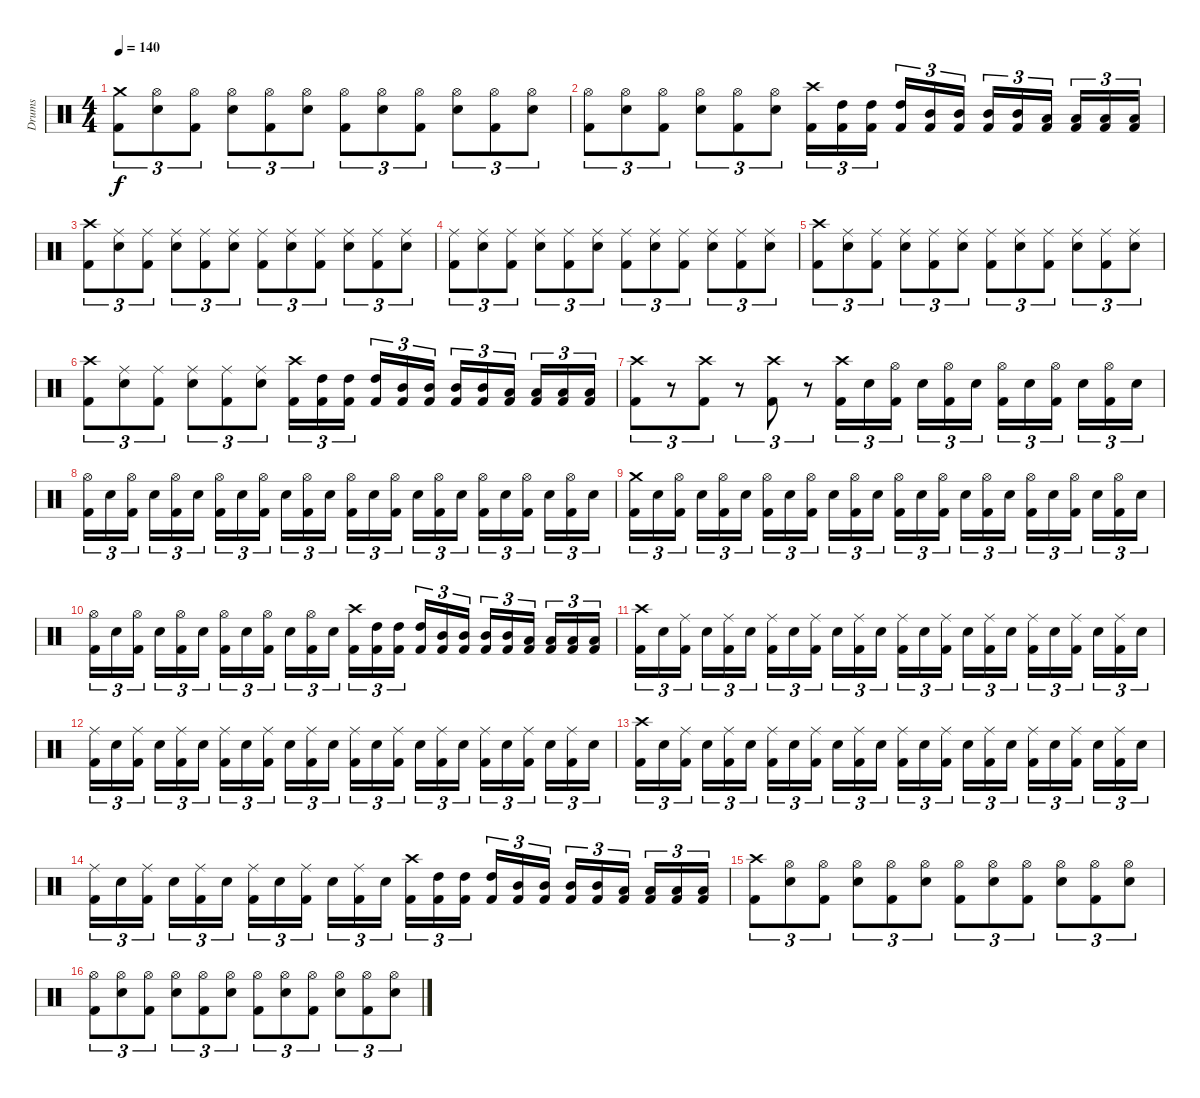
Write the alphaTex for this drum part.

\track ("Drums" "Drums") {instrument percussion}
\staff {score}
\articulation defaults
\ts (4 4)
\tempo 140
\clef neutral
\ks c
("Kick (hit) 2" "Crash medium (hit)").8{tu (3 2) dy f} ("Snare (hit) 2" "Hi-Hat (open)").8{tu (3 2)} ("Kick (hit) 2" "Hi-Hat (open)").8{tu (3 2)} ("Snare (hit) 2" "Hi-Hat (open)").8{tu (3 2)} ("Kick (hit) 2" "Hi-Hat (open)").8{tu (3 2)} ("Snare (hit) 2" "Hi-Hat (open)").8{tu (3 2)} ("Kick (hit) 2" "Hi-Hat (open)").8{tu (3 2)} ("Snare (hit) 2" "Hi-Hat (open)").8{tu (3 2)} ("Kick (hit) 2" "Hi-Hat (open)").8{tu (3 2)} ("Snare (hit) 2" "Hi-Hat (open)").8{tu (3 2)} ("Kick (hit) 2" "Hi-Hat (open)").8{tu (3 2)} ("Snare (hit) 2" "Hi-Hat (open)").8{tu (3 2)} |
("Kick (hit) 2" "Hi-Hat (open)").8{tu (3 2)} ("Snare (hit) 2" "Hi-Hat (open)").8{tu (3 2)} ("Kick (hit) 2" "Hi-Hat (open)").8{tu (3 2)} ("Snare (hit) 2" "Hi-Hat (open)").8{tu (3 2)} ("Kick (hit) 2" "Hi-Hat (open)").8{tu (3 2)} ("Snare (hit) 2" "Hi-Hat (open)").8{tu (3 2)} ("Kick (hit) 2" "Crash high (hit)").16{tu (3 2)} ("Kick (hit) 2" "High Tom (hit)").16{tu (3 2)} ("Kick (hit) 2" "High Tom (hit)").16{tu (3 2)} ("Kick (hit) 2" "High Tom (hit)").16{tu (3 2)} ("Kick (hit) 2" "Mid Tom (hit)").16{tu (3 2)} ("Kick (hit) 2" "Mid Tom (hit)").16{tu (3 2)} ("Kick (hit) 2" "Mid Tom (hit)").16{tu (3 2)} ("Kick (hit) 2" "Mid Tom (hit)").16{tu (3 2)} ("Kick (hit) 2" "Low Tom (hit)").16{tu (3 2)} ("Kick (hit) 2" "Low Tom (hit)").16{tu (3 2)} ("Kick (hit) 2" "Low Tom (hit)").16{tu (3 2)} ("Kick (hit) 2" "Low Tom (hit)").16{tu (3 2)} |
("Kick (hit) 2" "Crash high (hit)").8{tu (3 2)} ("Snare (hit) 2" "Ride (middle)").8{tu (3 2)} ("Kick (hit) 2" "Ride (middle)").8{tu (3 2)} ("Snare (hit) 2" "Ride (middle)").8{tu (3 2)} ("Kick (hit) 2" "Ride (middle)").8{tu (3 2)} ("Snare (hit) 2" "Ride (middle)").8{tu (3 2)} ("Kick (hit) 2" "Ride (middle)").8{tu (3 2)} ("Snare (hit) 2" "Ride (middle)").8{tu (3 2)} ("Kick (hit) 2" "Ride (middle)").8{tu (3 2)} ("Snare (hit) 2" "Ride (middle)").8{tu (3 2)} ("Kick (hit) 2" "Ride (middle)").8{tu (3 2)} ("Snare (hit) 2" "Ride (middle)").8{tu (3 2)} |
("Kick (hit) 2" "Ride (middle)").8{tu (3 2)} ("Snare (hit) 2" "Ride (middle)").8{tu (3 2)} ("Kick (hit) 2" "Ride (middle)").8{tu (3 2)} ("Snare (hit) 2" "Ride (middle)").8{tu (3 2)} ("Kick (hit) 2" "Ride (middle)").8{tu (3 2)} ("Snare (hit) 2" "Ride (middle)").8{tu (3 2)} ("Kick (hit) 2" "Ride (middle)").8{tu (3 2)} ("Snare (hit) 2" "Ride (middle)").8{tu (3 2)} ("Kick (hit) 2" "Ride (middle)").8{tu (3 2)} ("Snare (hit) 2" "Ride (middle)").8{tu (3 2)} ("Kick (hit) 2" "Ride (middle)").8{tu (3 2)} ("Snare (hit) 2" "Ride (middle)").8{tu (3 2)} |
("Kick (hit) 2" "Crash high (hit)").8{tu (3 2)} ("Snare (hit) 2" "Ride (middle)").8{tu (3 2)} ("Kick (hit) 2" "Ride (middle)").8{tu (3 2)} ("Snare (hit) 2" "Ride (middle)").8{tu (3 2)} ("Kick (hit) 2" "Ride (middle)").8{tu (3 2)} ("Snare (hit) 2" "Ride (middle)").8{tu (3 2)} ("Kick (hit) 2" "Ride (middle)").8{tu (3 2)} ("Snare (hit) 2" "Ride (middle)").8{tu (3 2)} ("Kick (hit) 2" "Ride (middle)").8{tu (3 2)} ("Snare (hit) 2" "Ride (middle)").8{tu (3 2)} ("Kick (hit) 2" "Ride (middle)").8{tu (3 2)} ("Snare (hit) 2" "Ride (middle)").8{tu (3 2)} |
("Kick (hit) 2" "Crash high (hit)").8{tu (3 2)} ("Snare (hit) 2" "Ride (middle)").8{tu (3 2)} ("Kick (hit) 2" "Ride (middle)").8{tu (3 2)} ("Snare (hit) 2" "Ride (middle)").8{tu (3 2)} ("Kick (hit) 2" "Ride (middle)").8{tu (3 2)} ("Snare (hit) 2" "Ride (middle)").8{tu (3 2)} ("Kick (hit) 2" "Crash high (hit)").16{tu (3 2)} ("Kick (hit) 2" "High Tom (hit)").16{tu (3 2)} ("Kick (hit) 2" "High Tom (hit)").16{tu (3 2)} ("Kick (hit) 2" "High Tom (hit)").16{tu (3 2)} ("Kick (hit) 2" "Mid Tom (hit)").16{tu (3 2)} ("Kick (hit) 2" "Mid Tom (hit)").16{tu (3 2)} ("Kick (hit) 2" "Mid Tom (hit)").16{tu (3 2)} ("Kick (hit) 2" "Mid Tom (hit)").16{tu (3 2)} ("Kick (hit) 2" "Low Tom (hit)").16{tu (3 2)} ("Kick (hit) 2" "Low Tom (hit)").16{tu (3 2)} ("Kick (hit) 2" "Low Tom (hit)").16{tu (3 2)} ("Kick (hit) 2" "Low Tom (hit)").16{tu (3 2)} |
("Kick (hit) 2" "Crash high (hit)").8{tu (3 2)} r.8{tu (3 2)} ("Kick (hit) 2" "Crash high (hit)").8{tu (3 2)} r.8{tu (3 2)} ("Kick (hit) 2" "Crash high (hit)").8{tu (3 2)} r.8{tu (3 2)} ("Kick (hit) 2" "Crash high (hit)").16{tu (3 2)} "Snare (hit) 2".16{tu (3 2)} ("Kick (hit) 2" "Hi-Hat (open)").16{tu (3 2)} "Snare (hit) 2".16{tu (3 2)} ("Kick (hit) 2" "Hi-Hat (open)").16{tu (3 2)} "Snare (hit) 2".16{tu (3 2)} ("Kick (hit) 2" "Hi-Hat (open)").16{tu (3 2)} "Snare (hit) 2".16{tu (3 2)} ("Kick (hit) 2" "Hi-Hat (open)").16{tu (3 2)} "Snare (hit) 2".16{tu (3 2)} ("Kick (hit) 2" "Hi-Hat (open)").16{tu (3 2)} "Snare (hit) 2".16{tu (3 2)} |
("Kick (hit) 2" "Hi-Hat (open)").16{tu (3 2)} "Snare (hit) 2".16{tu (3 2)} ("Kick (hit) 2" "Hi-Hat (open)").16{tu (3 2)} "Snare (hit) 2".16{tu (3 2)} ("Kick (hit) 2" "Hi-Hat (open)").16{tu (3 2)} "Snare (hit) 2".16{tu (3 2)} ("Kick (hit) 2" "Hi-Hat (open)").16{tu (3 2)} "Snare (hit) 2".16{tu (3 2)} ("Kick (hit) 2" "Hi-Hat (open)").16{tu (3 2)} "Snare (hit) 2".16{tu (3 2)} ("Kick (hit) 2" "Hi-Hat (open)").16{tu (3 2)} "Snare (hit) 2".16{tu (3 2)} ("Kick (hit) 2" "Hi-Hat (open)").16{tu (3 2)} "Snare (hit) 2".16{tu (3 2)} ("Kick (hit) 2" "Hi-Hat (open)").16{tu (3 2)} "Snare (hit) 2".16{tu (3 2)} ("Kick (hit) 2" "Hi-Hat (open)").16{tu (3 2)} "Snare (hit) 2".16{tu (3 2)} ("Kick (hit) 2" "Hi-Hat (open)").16{tu (3 2)} "Snare (hit) 2".16{tu (3 2)} ("Kick (hit) 2" "Hi-Hat (open)").16{tu (3 2)} "Snare (hit) 2".16{tu (3 2)} ("Kick (hit) 2" "Hi-Hat (open)").16{tu (3 2)} "Snare (hit) 2".16{tu (3 2)} |
("Kick (hit) 2" "Crash medium (hit)").16{tu (3 2)} "Snare (hit) 2".16{tu (3 2)} ("Kick (hit) 2" "Hi-Hat (open)").16{tu (3 2)} "Snare (hit) 2".16{tu (3 2)} ("Kick (hit) 2" "Hi-Hat (open)").16{tu (3 2)} "Snare (hit) 2".16{tu (3 2)} ("Kick (hit) 2" "Hi-Hat (open)").16{tu (3 2)} "Snare (hit) 2".16{tu (3 2)} ("Kick (hit) 2" "Hi-Hat (open)").16{tu (3 2)} "Snare (hit) 2".16{tu (3 2)} ("Kick (hit) 2" "Hi-Hat (open)").16{tu (3 2)} "Snare (hit) 2".16{tu (3 2)} ("Kick (hit) 2" "Hi-Hat (open)").16{tu (3 2)} "Snare (hit) 2".16{tu (3 2)} ("Kick (hit) 2" "Hi-Hat (open)").16{tu (3 2)} "Snare (hit) 2".16{tu (3 2)} ("Kick (hit) 2" "Hi-Hat (open)").16{tu (3 2)} "Snare (hit) 2".16{tu (3 2)} ("Kick (hit) 2" "Hi-Hat (open)").16{tu (3 2)} "Snare (hit) 2".16{tu (3 2)} ("Kick (hit) 2" "Hi-Hat (open)").16{tu (3 2)} "Snare (hit) 2".16{tu (3 2)} ("Kick (hit) 2" "Hi-Hat (open)").16{tu (3 2)} "Snare (hit) 2".16{tu (3 2)} |
("Kick (hit) 2" "Hi-Hat (open)").16{tu (3 2)} "Snare (hit) 2".16{tu (3 2)} ("Kick (hit) 2" "Hi-Hat (open)").16{tu (3 2)} "Snare (hit) 2".16{tu (3 2)} ("Kick (hit) 2" "Hi-Hat (open)").16{tu (3 2)} "Snare (hit) 2".16{tu (3 2)} ("Kick (hit) 2" "Hi-Hat (open)").16{tu (3 2)} "Snare (hit) 2".16{tu (3 2)} ("Kick (hit) 2" "Hi-Hat (open)").16{tu (3 2)} "Snare (hit) 2".16{tu (3 2)} ("Kick (hit) 2" "Hi-Hat (open)").16{tu (3 2)} "Snare (hit) 2".16{tu (3 2)} ("Kick (hit) 2" "Crash high (hit)").16{tu (3 2)} ("Kick (hit) 2" "High Tom (hit)").16{tu (3 2)} ("Kick (hit) 2" "High Tom (hit)").16{tu (3 2)} ("Kick (hit) 2" "High Tom (hit)").16{tu (3 2)} ("Kick (hit) 2" "Mid Tom (hit)").16{tu (3 2)} ("Kick (hit) 2" "Mid Tom (hit)").16{tu (3 2)} ("Kick (hit) 2" "Mid Tom (hit)").16{tu (3 2)} ("Kick (hit) 2" "Mid Tom (hit)").16{tu (3 2)} ("Kick (hit) 2" "Low Tom (hit)").16{tu (3 2)} ("Kick (hit) 2" "Low Tom (hit)").16{tu (3 2)} ("Kick (hit) 2" "Low Tom (hit)").16{tu (3 2)} ("Kick (hit) 2" "Low Tom (hit)").16{tu (3 2)} |
("Kick (hit) 2" "Crash high (hit)").16{tu (3 2)} "Snare (hit) 2".16{tu (3 2)} ("Kick (hit) 2" "Ride (middle)").16{tu (3 2)} "Snare (hit) 2".16{tu (3 2)} ("Kick (hit) 2" "Ride (middle)").16{tu (3 2)} "Snare (hit) 2".16{tu (3 2)} ("Kick (hit) 2" "Ride (middle)").16{tu (3 2)} "Snare (hit) 2".16{tu (3 2)} ("Kick (hit) 2" "Ride (middle)").16{tu (3 2)} "Snare (hit) 2".16{tu (3 2)} ("Kick (hit) 2" "Ride (middle)").16{tu (3 2)} "Snare (hit) 2".16{tu (3 2)} ("Kick (hit) 2" "Ride (middle)").16{tu (3 2)} "Snare (hit) 2".16{tu (3 2)} ("Kick (hit) 2" "Ride (middle)").16{tu (3 2)} "Snare (hit) 2".16{tu (3 2)} ("Kick (hit) 2" "Ride (middle)").16{tu (3 2)} "Snare (hit) 2".16{tu (3 2)} ("Kick (hit) 2" "Ride (middle)").16{tu (3 2)} "Snare (hit) 2".16{tu (3 2)} ("Kick (hit) 2" "Ride (middle)").16{tu (3 2)} "Snare (hit) 2".16{tu (3 2)} ("Kick (hit) 2" "Ride (middle)").16{tu (3 2)} "Snare (hit) 2".16{tu (3 2)} |
("Kick (hit) 2" "Ride (middle)").16{tu (3 2)} "Snare (hit) 2".16{tu (3 2)} ("Kick (hit) 2" "Ride (middle)").16{tu (3 2)} "Snare (hit) 2".16{tu (3 2)} ("Kick (hit) 2" "Ride (middle)").16{tu (3 2)} "Snare (hit) 2".16{tu (3 2)} ("Kick (hit) 2" "Ride (middle)").16{tu (3 2)} "Snare (hit) 2".16{tu (3 2)} ("Kick (hit) 2" "Ride (middle)").16{tu (3 2)} "Snare (hit) 2".16{tu (3 2)} ("Kick (hit) 2" "Ride (middle)").16{tu (3 2)} "Snare (hit) 2".16{tu (3 2)} ("Kick (hit) 2" "Ride (middle)").16{tu (3 2)} "Snare (hit) 2".16{tu (3 2)} ("Kick (hit) 2" "Ride (middle)").16{tu (3 2)} "Snare (hit) 2".16{tu (3 2)} ("Kick (hit) 2" "Ride (middle)").16{tu (3 2)} "Snare (hit) 2".16{tu (3 2)} ("Kick (hit) 2" "Ride (middle)").16{tu (3 2)} "Snare (hit) 2".16{tu (3 2)} ("Kick (hit) 2" "Ride (middle)").16{tu (3 2)} "Snare (hit) 2".16{tu (3 2)} ("Kick (hit) 2" "Ride (middle)").16{tu (3 2)} "Snare (hit) 2".16{tu (3 2)} |
("Kick (hit) 2" "Crash high (hit)").16{tu (3 2)} "Snare (hit) 2".16{tu (3 2)} ("Kick (hit) 2" "Ride (middle)").16{tu (3 2)} "Snare (hit) 2".16{tu (3 2)} ("Kick (hit) 2" "Ride (middle)").16{tu (3 2)} "Snare (hit) 2".16{tu (3 2)} ("Kick (hit) 2" "Ride (middle)").16{tu (3 2)} "Snare (hit) 2".16{tu (3 2)} ("Kick (hit) 2" "Ride (middle)").16{tu (3 2)} "Snare (hit) 2".16{tu (3 2)} ("Kick (hit) 2" "Ride (middle)").16{tu (3 2)} "Snare (hit) 2".16{tu (3 2)} ("Kick (hit) 2" "Ride (middle)").16{tu (3 2)} "Snare (hit) 2".16{tu (3 2)} ("Kick (hit) 2" "Ride (middle)").16{tu (3 2)} "Snare (hit) 2".16{tu (3 2)} ("Kick (hit) 2" "Ride (middle)").16{tu (3 2)} "Snare (hit) 2".16{tu (3 2)} ("Kick (hit) 2" "Ride (middle)").16{tu (3 2)} "Snare (hit) 2".16{tu (3 2)} ("Kick (hit) 2" "Ride (middle)").16{tu (3 2)} "Snare (hit) 2".16{tu (3 2)} ("Kick (hit) 2" "Ride (middle)").16{tu (3 2)} "Snare (hit) 2".16{tu (3 2)} |
("Kick (hit) 2" "Ride (middle)").16{tu (3 2)} "Snare (hit) 2".16{tu (3 2)} ("Kick (hit) 2" "Ride (middle)").16{tu (3 2)} "Snare (hit) 2".16{tu (3 2)} ("Kick (hit) 2" "Ride (middle)").16{tu (3 2)} "Snare (hit) 2".16{tu (3 2)} ("Kick (hit) 2" "Ride (middle)").16{tu (3 2)} "Snare (hit) 2".16{tu (3 2)} ("Kick (hit) 2" "Ride (middle)").16{tu (3 2)} "Snare (hit) 2".16{tu (3 2)} ("Kick (hit) 2" "Ride (middle)").16{tu (3 2)} "Snare (hit) 2".16{tu (3 2)} ("Kick (hit) 2" "Crash high (hit)").16{tu (3 2)} ("Kick (hit) 2" "High Tom (hit)").16{tu (3 2)} ("Kick (hit) 2" "High Tom (hit)").16{tu (3 2)} ("Kick (hit) 2" "High Tom (hit)").16{tu (3 2)} ("Kick (hit) 2" "Mid Tom (hit)").16{tu (3 2)} ("Kick (hit) 2" "Mid Tom (hit)").16{tu (3 2)} ("Kick (hit) 2" "Mid Tom (hit)").16{tu (3 2)} ("Kick (hit) 2" "Mid Tom (hit)").16{tu (3 2)} ("Kick (hit) 2" "Low Tom (hit)").16{tu (3 2)} ("Kick (hit) 2" "Low Tom (hit)").16{tu (3 2)} ("Kick (hit) 2" "Low Tom (hit)").16{tu (3 2)} ("Kick (hit) 2" "Low Tom (hit)").16{tu (3 2)} |
("Kick (hit) 2" "Crash high (hit)").8{tu (3 2)} ("Snare (hit) 2" "Hi-Hat (open)").8{tu (3 2)} ("Kick (hit) 2" "Hi-Hat (open)").8{tu (3 2)} ("Snare (hit) 2" "Hi-Hat (open)").8{tu (3 2)} ("Kick (hit) 2" "Hi-Hat (open)").8{tu (3 2)} ("Snare (hit) 2" "Hi-Hat (open)").8{tu (3 2)} ("Kick (hit) 2" "Hi-Hat (open)").8{tu (3 2)} ("Snare (hit) 2" "Hi-Hat (open)").8{tu (3 2)} ("Kick (hit) 2" "Hi-Hat (open)").8{tu (3 2)} ("Snare (hit) 2" "Hi-Hat (open)").8{tu (3 2)} ("Kick (hit) 2" "Hi-Hat (open)").8{tu (3 2)} ("Snare (hit) 2" "Hi-Hat (open)").8{tu (3 2)} |
("Kick (hit) 2" "Hi-Hat (open)").8{tu (3 2)} ("Snare (hit) 2" "Hi-Hat (open)").8{tu (3 2)} ("Kick (hit) 2" "Hi-Hat (open)").8{tu (3 2)} ("Snare (hit) 2" "Hi-Hat (open)").8{tu (3 2)} ("Kick (hit) 2" "Hi-Hat (open)").8{tu (3 2)} ("Snare (hit) 2" "Hi-Hat (open)").8{tu (3 2)} ("Kick (hit) 2" "Hi-Hat (open)").8{tu (3 2)} ("Snare (hit) 2" "Hi-Hat (open)").8{tu (3 2)} ("Kick (hit) 2" "Hi-Hat (open)").8{tu (3 2)} ("Snare (hit) 2" "Hi-Hat (open)").8{tu (3 2)} ("Kick (hit) 2" "Hi-Hat (open)").8{tu (3 2)} ("Snare (hit) 2" "Hi-Hat (open)").8{tu (3 2)}
